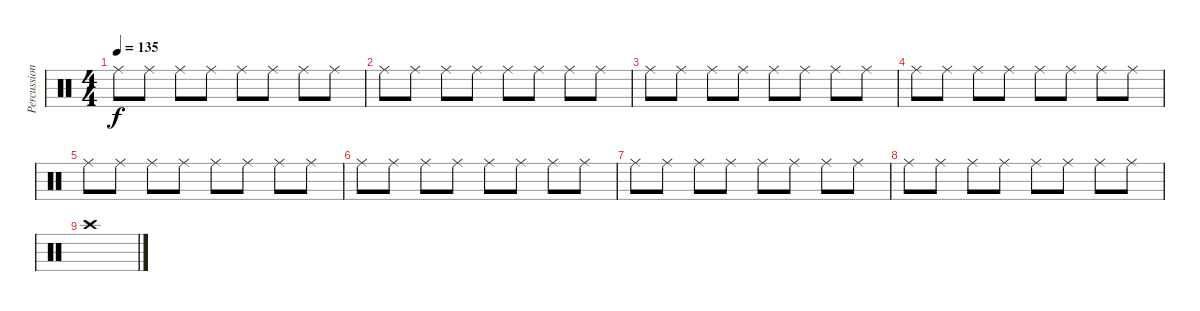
\track ("Percussion" "Percussion") {instrument percussion}
\staff {score}
\articulation defaults
\ts (4 4)
\tempo 135
\clef neutral
\ks c "Ride (middle)".8{dy f} "Ride (middle)".8 "Ride (middle)".8 "Ride (middle)".8 "Ride (middle)".8 "Ride (middle)".8 "Ride (middle)".8 "Ride (middle)".8
|
"Ride (middle)".8 "Ride (middle)".8 "Ride (middle)".8 "Ride (middle)".8 "Ride (middle)".8 "Ride (middle)".8 "Ride (middle)".8 "Ride (middle)".8 |
"Ride (middle)".8 "Ride (middle)".8 "Ride (middle)".8 "Ride (middle)".8 "Ride (middle)".8 "Ride (middle)".8 "Ride (middle)".8 "Ride (middle)".8 |
"Ride (middle)".8 "Ride (middle)".8 "Ride (middle)".8 "Ride (middle)".8 "Ride (middle)".8 "Ride (middle)".8 "Ride (middle)".8 "Ride (middle)".8 |
"Ride (middle)".8 "Ride (middle)".8 "Ride (middle)".8 "Ride (middle)".8 "Ride (middle)".8 "Ride (middle)".8 "Ride (middle)".8 "Ride (middle)".8 |
"Ride (middle)".8 "Ride (middle)".8 "Ride (middle)".8 "Ride (middle)".8 "Ride (middle)".8 "Ride (middle)".8 "Ride (middle)".8 "Ride (middle)".8 |
"Ride (middle)".8 "Ride (middle)".8 "Ride (middle)".8 "Ride (middle)".8 "Ride (middle)".8 "Ride (middle)".8 "Ride (middle)".8 "Ride (middle)".8 |
"Ride (middle)".8 "Ride (middle)".8 "Ride (middle)".8 "Ride (middle)".8 "Ride (middle)".8 "Ride (middle)".8 "Ride (middle)".8 "Ride (middle)".8 |
"Crash high (hit)".1
